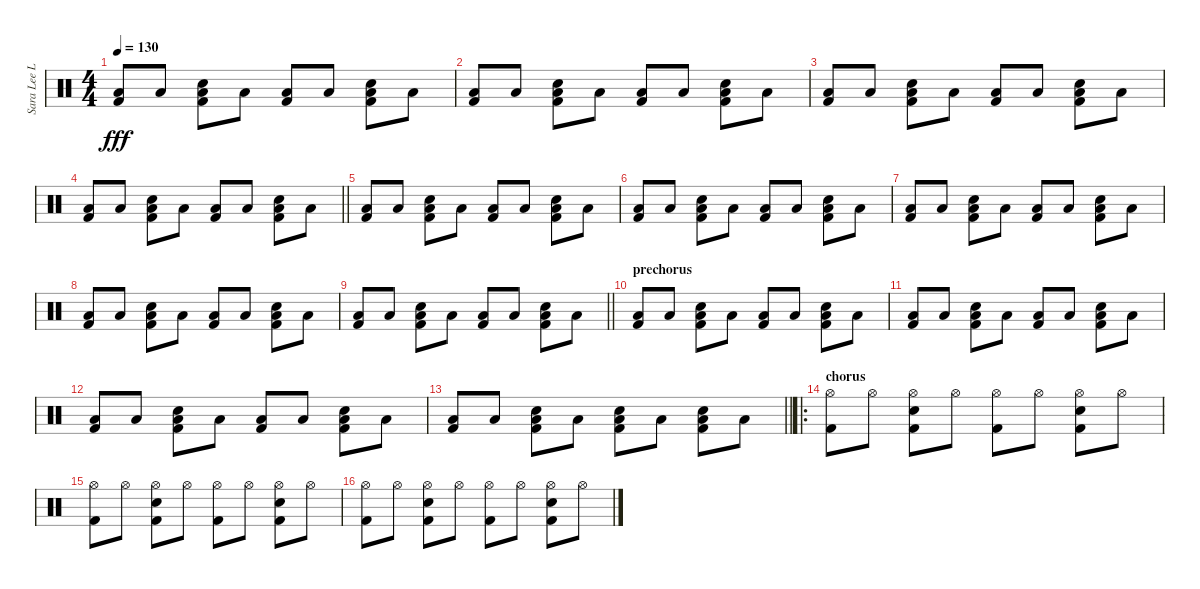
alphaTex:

\track ("Sara Lee Lucas" "Sara Lee L") {instrument percussion}
\staff {score}
\articulation defaults
\ts (4 4)
\tempo 130
\clef neutral
\ks c
("Low Tom (hit)" "Kick (hit) 2").8{dy fff} "Low Tom (hit)".8 ("Low Tom (hit)" "Snare (hit) 2" "Kick (hit) 2").8 "Low Tom (hit)".8 ("Low Tom (hit)" "Kick (hit) 2").8 "Low Tom (hit)".8 ("Low Tom (hit)" "Snare (hit) 2" "Kick (hit) 2").8 "Low Tom (hit)".8 |
("Low Tom (hit)" "Kick (hit) 2").8 "Low Tom (hit)".8 ("Low Tom (hit)" "Snare (hit) 2" "Kick (hit) 2").8 "Low Tom (hit)".8 ("Low Tom (hit)" "Kick (hit) 2").8 "Low Tom (hit)".8 ("Low Tom (hit)" "Snare (hit) 2" "Kick (hit) 2").8 "Low Tom (hit)".8 |
("Low Tom (hit)" "Kick (hit) 2").8 "Low Tom (hit)".8 ("Low Tom (hit)" "Snare (hit) 2" "Kick (hit) 2").8 "Low Tom (hit)".8 ("Low Tom (hit)" "Kick (hit) 2").8 "Low Tom (hit)".8 ("Low Tom (hit)" "Snare (hit) 2" "Kick (hit) 2").8 "Low Tom (hit)".8 |
\barLineRight lightlight
("Low Tom (hit)" "Kick (hit) 2").8 "Low Tom (hit)".8 ("Low Tom (hit)" "Snare (hit) 2" "Kick (hit) 2").8 "Low Tom (hit)".8 ("Low Tom (hit)" "Kick (hit) 2").8 "Low Tom (hit)".8 ("Low Tom (hit)" "Snare (hit) 2" "Kick (hit) 2").8 "Low Tom (hit)".8 |
("Low Tom (hit)" "Kick (hit) 2").8 "Low Tom (hit)".8 ("Low Tom (hit)" "Snare (hit) 2" "Kick (hit) 2").8 "Low Tom (hit)".8 ("Low Tom (hit)" "Kick (hit) 2").8 "Low Tom (hit)".8 ("Low Tom (hit)" "Snare (hit) 2" "Kick (hit) 2").8 "Low Tom (hit)".8 |
("Low Tom (hit)" "Kick (hit) 2").8 "Low Tom (hit)".8 ("Low Tom (hit)" "Snare (hit) 2" "Kick (hit) 2").8 "Low Tom (hit)".8 ("Low Tom (hit)" "Kick (hit) 2").8 "Low Tom (hit)".8 ("Low Tom (hit)" "Snare (hit) 2" "Kick (hit) 2").8 "Low Tom (hit)".8 |
("Low Tom (hit)" "Kick (hit) 2").8 "Low Tom (hit)".8 ("Low Tom (hit)" "Snare (hit) 2" "Kick (hit) 2").8 "Low Tom (hit)".8 ("Low Tom (hit)" "Kick (hit) 2").8 "Low Tom (hit)".8 ("Low Tom (hit)" "Snare (hit) 2" "Kick (hit) 2").8 "Low Tom (hit)".8 |
("Low Tom (hit)" "Kick (hit) 2").8 "Low Tom (hit)".8 ("Low Tom (hit)" "Snare (hit) 2" "Kick (hit) 2").8 "Low Tom (hit)".8 ("Low Tom (hit)" "Kick (hit) 2").8 "Low Tom (hit)".8 ("Low Tom (hit)" "Snare (hit) 2" "Kick (hit) 2").8 "Low Tom (hit)".8 |
\barLineRight lightlight
("Low Tom (hit)" "Kick (hit) 2").8 "Low Tom (hit)".8 ("Low Tom (hit)" "Snare (hit) 2" "Kick (hit) 2").8 "Low Tom (hit)".8 ("Low Tom (hit)" "Kick (hit) 2").8 "Low Tom (hit)".8 ("Low Tom (hit)" "Snare (hit) 2" "Kick (hit) 2").8 "Low Tom (hit)".8 |
\section ("" "prechorus")
("Low Tom (hit)" "Kick (hit) 2").8 "Low Tom (hit)".8 ("Low Tom (hit)" "Snare (hit) 2" "Kick (hit) 2").8 "Low Tom (hit)".8 ("Low Tom (hit)" "Kick (hit) 2").8 "Low Tom (hit)".8 ("Low Tom (hit)" "Snare (hit) 2" "Kick (hit) 2").8 "Low Tom (hit)".8 |
("Low Tom (hit)" "Kick (hit) 2").8 "Low Tom (hit)".8 ("Low Tom (hit)" "Snare (hit) 2" "Kick (hit) 2").8 "Low Tom (hit)".8 ("Low Tom (hit)" "Kick (hit) 2").8 "Low Tom (hit)".8 ("Low Tom (hit)" "Snare (hit) 2" "Kick (hit) 2").8 "Low Tom (hit)".8 |
("Low Tom (hit)" "Kick (hit) 2").8 "Low Tom (hit)".8 ("Low Tom (hit)" "Snare (hit) 2" "Kick (hit) 2").8 "Low Tom (hit)".8 ("Low Tom (hit)" "Kick (hit) 2").8 "Low Tom (hit)".8 ("Low Tom (hit)" "Snare (hit) 2" "Kick (hit) 2").8 "Low Tom (hit)".8 |
\barLineRight lightlight
("Low Tom (hit)" "Kick (hit) 2").8 "Low Tom (hit)".8 ("Low Tom (hit)" "Snare (hit) 2" "Kick (hit) 2").8 "Low Tom (hit)".8 ("Low Tom (hit)" "Snare (hit) 2" "Kick (hit) 2").8 "Low Tom (hit)".8 ("Low Tom (hit)" "Snare (hit) 2" "Kick (hit) 2").8 "Low Tom (hit)".8 |
\ro
\section ("" "chorus")
("Hi-Hat (open)" "Kick (hit) 2").8 "Hi-Hat (open)".8 ("Hi-Hat (open)" "Snare (hit) 2" "Kick (hit) 2").8 "Hi-Hat (open)".8 ("Hi-Hat (open)" "Kick (hit) 2").8 "Hi-Hat (open)".8 ("Hi-Hat (open)" "Snare (hit) 2" "Kick (hit) 2").8 "Hi-Hat (open)".8 |
("Hi-Hat (open)" "Kick (hit) 2").8 "Hi-Hat (open)".8 ("Hi-Hat (open)" "Snare (hit) 2" "Kick (hit) 2").8 "Hi-Hat (open)".8 ("Hi-Hat (open)" "Kick (hit) 2").8 "Hi-Hat (open)".8 ("Hi-Hat (open)" "Snare (hit) 2" "Kick (hit) 2").8 "Hi-Hat (open)".8 |
("Hi-Hat (open)" "Kick (hit) 2").8 "Hi-Hat (open)".8 ("Hi-Hat (open)" "Snare (hit) 2" "Kick (hit) 2").8 "Hi-Hat (open)".8 ("Hi-Hat (open)" "Kick (hit) 2").8 "Hi-Hat (open)".8 ("Hi-Hat (open)" "Snare (hit) 2" "Kick (hit) 2").8 "Hi-Hat (open)".8
